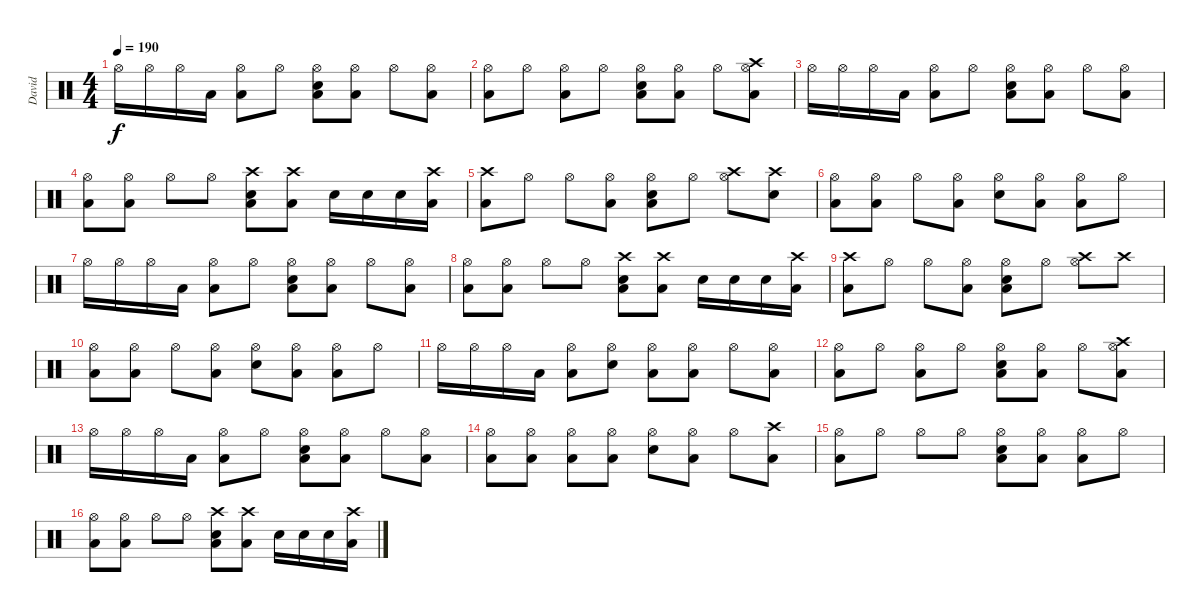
\track ("David" "David") {instrument percussion}
\staff {score}
\articulation defaults
\ts (4 4)
\tempo 190
\clef neutral
\ks c "Hi-Hat (open)".16{dy f} "Hi-Hat (open)".16 "Hi-Hat (open)".16 "Low Tom (hit)".16
("Hi-Hat (open)" "Low Tom (hit)").8 "Hi-Hat (open)".8 ("Hi-Hat (open)" "Electric Snare (hit)" "Low Tom (hit)").8 ("Hi-Hat (open)" "Low Tom (hit)").8 "Hi-Hat (open)".8 ("Hi-Hat (open)" "Low Tom (hit)").8 |
("Hi-Hat (open)" "Low Tom (hit)").8 "Hi-Hat (open)".8 ("Hi-Hat (open)" "Low Tom (hit)").8 "Hi-Hat (open)".8 ("Hi-Hat (open)" "Electric Snare (hit)" "Low Tom (hit)").8 ("Hi-Hat (open)" "Low Tom (hit)").8 "Hi-Hat (open)".8 ("Crash high (hit)" "Hi-Hat (open)" "Low Tom (hit)").8 |
"Hi-Hat (open)".16 "Hi-Hat (open)".16 "Hi-Hat (open)".16 "Low Tom (hit)".16 ("Hi-Hat (open)" "Low Tom (hit)").8 "Hi-Hat (open)".8 ("Hi-Hat (open)" "Electric Snare (hit)" "Low Tom (hit)").8 ("Hi-Hat (open)" "Low Tom (hit)").8 "Hi-Hat (open)".8 ("Hi-Hat (open)" "Low Tom (hit)").8 |
("Hi-Hat (open)" "Low Tom (hit)").8 ("Hi-Hat (open)" "Low Tom (hit)").8 "Hi-Hat (open)".8 "Hi-Hat (open)".8 ("Crash high (hit)" "Electric Snare (hit)" "Low Tom (hit)").8 ("Crash high (hit)" "Low Tom (hit)").8 "Electric Snare (hit)".16 "Electric Snare (hit)".16 "Electric Snare (hit)".16 ("Crash high (hit)" "Low Tom (hit)").16 |
("Crash high (hit)" "Low Tom (hit)").8 "Hi-Hat (open)".8 "Hi-Hat (open)".8 ("Hi-Hat (open)" "Low Tom (hit)").8 ("Hi-Hat (open)" "Electric Snare (hit)" "Low Tom (hit)").8 "Hi-Hat (open)".8 ("Crash high (hit)" "Hi-Hat (open)").8 ("Crash high (hit)" "Electric Snare (hit)").8 |
("Hi-Hat (open)" "Low Tom (hit)").8 ("Hi-Hat (open)" "Low Tom (hit)").8 "Hi-Hat (open)".8 ("Hi-Hat (open)" "Low Tom (hit)").8 ("Hi-Hat (open)" "Electric Snare (hit)").8 ("Hi-Hat (open)" "Low Tom (hit)").8 ("Hi-Hat (open)" "Low Tom (hit)").8 "Hi-Hat (open)".8 |
"Hi-Hat (open)".16 "Hi-Hat (open)".16 "Hi-Hat (open)".16 "Low Tom (hit)".16 ("Hi-Hat (open)" "Low Tom (hit)").8 "Hi-Hat (open)".8 ("Hi-Hat (open)" "Electric Snare (hit)" "Low Tom (hit)").8 ("Hi-Hat (open)" "Low Tom (hit)").8 "Hi-Hat (open)".8 ("Hi-Hat (open)" "Low Tom (hit)").8 |
("Hi-Hat (open)" "Low Tom (hit)").8 ("Hi-Hat (open)" "Low Tom (hit)").8 "Hi-Hat (open)".8 "Hi-Hat (open)".8 ("Crash high (hit)" "Electric Snare (hit)" "Low Tom (hit)").8 ("Crash high (hit)" "Low Tom (hit)").8 "Electric Snare (hit)".16 "Electric Snare (hit)".16 "Electric Snare (hit)".16 ("Crash high (hit)" "Low Tom (hit)").16 |
("Crash high (hit)" "Low Tom (hit)").8 "Hi-Hat (open)".8 "Hi-Hat (open)".8 ("Hi-Hat (open)" "Low Tom (hit)").8 ("Hi-Hat (open)" "Electric Snare (hit)" "Low Tom (hit)").8 "Hi-Hat (open)".8 ("Crash high (hit)" "Hi-Hat (open)").8 "Crash high (hit)".8 |
("Hi-Hat (open)" "Low Tom (hit)").8 ("Hi-Hat (open)" "Low Tom (hit)").8 "Hi-Hat (open)".8 ("Hi-Hat (open)" "Low Tom (hit)").8 ("Hi-Hat (open)" "Electric Snare (hit)").8 ("Hi-Hat (open)" "Low Tom (hit)").8 ("Hi-Hat (open)" "Low Tom (hit)").8 "Hi-Hat (open)".8 |
"Hi-Hat (open)".16 "Hi-Hat (open)".16 "Hi-Hat (open)".16 "Low Tom (hit)".16 ("Hi-Hat (open)" "Low Tom (hit)").8 ("Hi-Hat (open)" "Electric Snare (hit)").8 ("Hi-Hat (open)" "Low Tom (hit)").8 ("Hi-Hat (open)" "Low Tom (hit)").8 "Hi-Hat (open)".8 ("Hi-Hat (open)" "Low Tom (hit)").8 |
("Hi-Hat (open)" "Low Tom (hit)").8 "Hi-Hat (open)".8 ("Hi-Hat (open)" "Low Tom (hit)").8 "Hi-Hat (open)".8 ("Hi-Hat (open)" "Electric Snare (hit)" "Low Tom (hit)").8 ("Hi-Hat (open)" "Low Tom (hit)").8 "Hi-Hat (open)".8 ("Crash high (hit)" "Hi-Hat (open)" "Low Tom (hit)").8 |
"Hi-Hat (open)".16 "Hi-Hat (open)".16 "Hi-Hat (open)".16 "Low Tom (hit)".16 ("Hi-Hat (open)" "Low Tom (hit)").8 "Hi-Hat (open)".8 ("Hi-Hat (open)" "Electric Snare (hit)" "Low Tom (hit)").8 ("Hi-Hat (open)" "Low Tom (hit)").8 "Hi-Hat (open)".8 ("Hi-Hat (open)" "Low Tom (hit)").8 |
("Hi-Hat (open)" "Low Tom (hit)").8 ("Hi-Hat (open)" "Low Tom (hit)").8 ("Hi-Hat (open)" "Low Tom (hit)").8 ("Hi-Hat (open)" "Low Tom (hit)").8 ("Hi-Hat (open)" "Electric Snare (hit)").8 ("Hi-Hat (open)" "Low Tom (hit)").8 "Hi-Hat (open)".8 ("Crash high (hit)" "Low Tom (hit)").8 |
("Hi-Hat (open)" "Low Tom (hit)").8 "Hi-Hat (open)".8 "Hi-Hat (open)".8 "Hi-Hat (open)".8 ("Hi-Hat (open)" "Electric Snare (hit)" "Low Tom (hit)").8 ("Hi-Hat (open)" "Low Tom (hit)").8 ("Hi-Hat (open)" "Low Tom (hit)").8 "Hi-Hat (open)".8 |
("Hi-Hat (open)" "Low Tom (hit)").8 ("Hi-Hat (open)" "Low Tom (hit)").8 "Hi-Hat (open)".8 "Hi-Hat (open)".8 ("Crash high (hit)" "Electric Snare (hit)" "Low Tom (hit)").8 ("Crash high (hit)" "Low Tom (hit)").8 "Electric Snare (hit)".16 "Electric Snare (hit)".16 "Electric Snare (hit)".16 ("Crash high (hit)" "Low Tom (hit)").16
